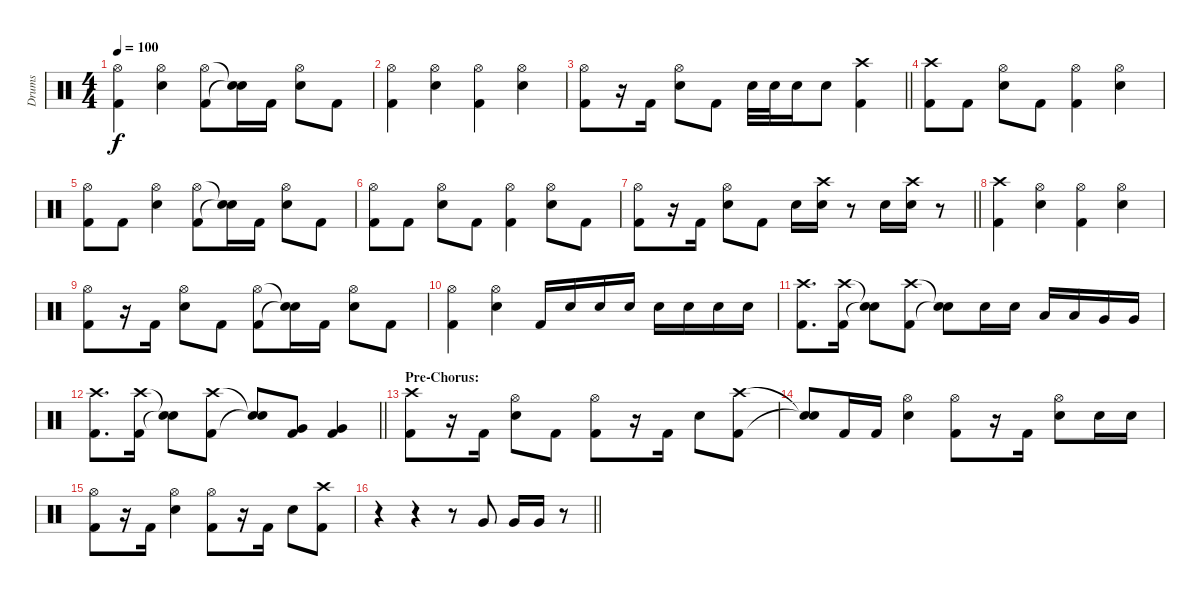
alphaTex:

\track ("Drums" "Drums") {instrument percussion}
\staff {score}
\articulation defaults
\ts (4 4)
\tempo 100
\clef neutral
\ks c
("Hi-Hat (open)" "Kick (hit) 2").4{dy f} ("Hi-Hat (open)" "Electric Snare (hit)").4 ("Hi-Hat (open)" "Kick (hit) 2").8 ("Snare (hit)"{t} "Snare (hit)"{t}).16 "Kick (hit) 2".16 ("Hi-Hat (open)" "Electric Snare (hit)").8 "Kick (hit) 2".8 |
("Hi-Hat (open)" "Kick (hit) 2").4 ("Hi-Hat (open)" "Electric Snare (hit)").4 ("Hi-Hat (open)" "Kick (hit) 2").4 ("Hi-Hat (open)" "Electric Snare (hit)").4 |
\barLineRight lightlight
("Hi-Hat (open)" "Kick (hit) 2").8 r.16 "Kick (hit) 2".16 ("Hi-Hat (open)" "Electric Snare (hit)").8 "Kick (hit) 2".8 "Electric Snare (hit)".32 "Electric Snare (hit)".32 "Electric Snare (hit)".16 "Electric Snare (hit)".8 ("Crash high (hit)" "Kick (hit) 2").4 |
("Crash high (hit)" "Kick (hit) 2").8 "Kick (hit) 2".8 ("Hi-Hat (open)" "Electric Snare (hit)").8 "Kick (hit) 2".8 ("Hi-Hat (open)" "Kick (hit) 2").4 ("Hi-Hat (open)" "Electric Snare (hit)").4 |
("Hi-Hat (open)" "Kick (hit) 2").8 "Kick (hit) 2".8 ("Hi-Hat (open)" "Electric Snare (hit)").4 ("Hi-Hat (open)" "Kick (hit) 2").8 ("Snare (hit)"{t} "Snare (hit)"{t}).16 "Kick (hit) 2".16 ("Hi-Hat (open)" "Electric Snare (hit)").8 "Kick (hit) 2".8 |
("Hi-Hat (open)" "Kick (hit) 2").8 "Kick (hit) 2".8 ("Hi-Hat (open)" "Electric Snare (hit)").8 "Kick (hit) 2".8 ("Hi-Hat (open)" "Kick (hit) 2").4 ("Hi-Hat (open)" "Electric Snare (hit)").8 "Kick (hit) 2".8 |
\barLineRight lightlight
("Hi-Hat (open)" "Kick (hit) 2").8 r.16 "Kick (hit) 2".16 ("Hi-Hat (open)" "Electric Snare (hit)").8 "Kick (hit) 2".8 "Electric Snare (hit)".16 ("Crash high (hit)" "Electric Snare (hit)").16 r.8 "Electric Snare (hit)".16 ("Crash high (hit)" "Electric Snare (hit)").16 r.8 |
("Crash high (hit)" "Kick (hit) 2").4 ("Hi-Hat (open)" "Electric Snare (hit)").4 ("Hi-Hat (open)" "Kick (hit) 2").4 ("Hi-Hat (open)" "Electric Snare (hit)").4 |
("Hi-Hat (open)" "Kick (hit) 2").8 r.16 "Kick (hit) 2".16 ("Hi-Hat (open)" "Electric Snare (hit)").8 "Kick (hit) 2".8 ("Hi-Hat (open)" "Kick (hit) 2").8 ("Snare (hit)"{t} "Snare (hit)"{t}).16 "Kick (hit) 2".16 ("Hi-Hat (open)" "Electric Snare (hit)").8 "Kick (hit) 2".8 |
("Hi-Hat (open)" "Kick (hit) 2").4 ("Hi-Hat (open)" "Electric Snare (hit)").4 "Kick (hit) 2".16 "Electric Snare (hit)".16 "Electric Snare (hit)".16 "Electric Snare (hit)".16 "Electric Snare (hit)".16 "Electric Snare (hit)".16 "Electric Snare (hit)".16 "Electric Snare (hit)".16 |
("Crash high (hit)" "Kick (hit) 2").8{d} ("Crash high (hit)" "Kick (hit) 2").16 ("Snare (hit)"{t} "Snare (hit)"{t}).8 ("Crash high (hit)" "Kick (hit) 2").8 ("Snare (hit)"{t} "Snare (hit)"{t}).8 "Electric Snare (hit)".16 "Electric Snare (hit)".16 "Low Tom (hit)".16 "Low Tom (hit)".16 "Very Low Tom (hit)".16 "Very Low Tom (hit)".16 |
\barLineRight lightlight
("Crash high (hit)" "Kick (hit) 2").8{d} ("Crash high (hit)" "Kick (hit) 2").16 ("Snare (hit)"{t} "Snare (hit)"{t}).8 ("Crash high (hit)" "Kick (hit) 2").8 ("Snare (hit)"{t} "Snare (hit)"{t}).8 ("Very Low Tom (hit)" "Kick (hit) 2").8 ("Very Low Tom (hit)" "Kick (hit) 2").4 |
\section ("" "Pre-Chorus:")
("Crash high (hit)" "Kick (hit) 2").8 r.16 "Kick (hit) 2".16 ("Hi-Hat (open)" "Electric Snare (hit)").8 "Kick (hit) 2".8 ("Hi-Hat (open)" "Kick (hit) 2").8 r.16 "Kick (hit) 2".16 "Electric Snare (hit)".8 ("Crash high (hit)" "Kick (hit) 2").8 |
("Snare (hit)"{t} "Snare (hit)"{t}).8 "Kick (hit) 2".16 "Kick (hit) 2".16 ("Hi-Hat (open)" "Electric Snare (hit)").4 ("Hi-Hat (open)" "Kick (hit) 2").8 r.16 "Kick (hit) 2".16 ("Hi-Hat (open)" "Electric Snare (hit)").8 "Electric Snare (hit)".16 "Electric Snare (hit)".16 |
("Hi-Hat (open)" "Kick (hit) 2").8 r.16 "Kick (hit) 2".16 ("Hi-Hat (open)" "Electric Snare (hit)").4 ("Hi-Hat (open)" "Kick (hit) 2").8 r.16 "Kick (hit) 2".16 "Electric Snare (hit)".8 ("Crash high (hit)" "Kick (hit) 2").8 |
\barLineRight lightlight
r.4 r.4 r.8 "Very Low Tom (hit)".8 "Very Low Tom (hit)".16 "Very Low Tom (hit)".16 r.8
